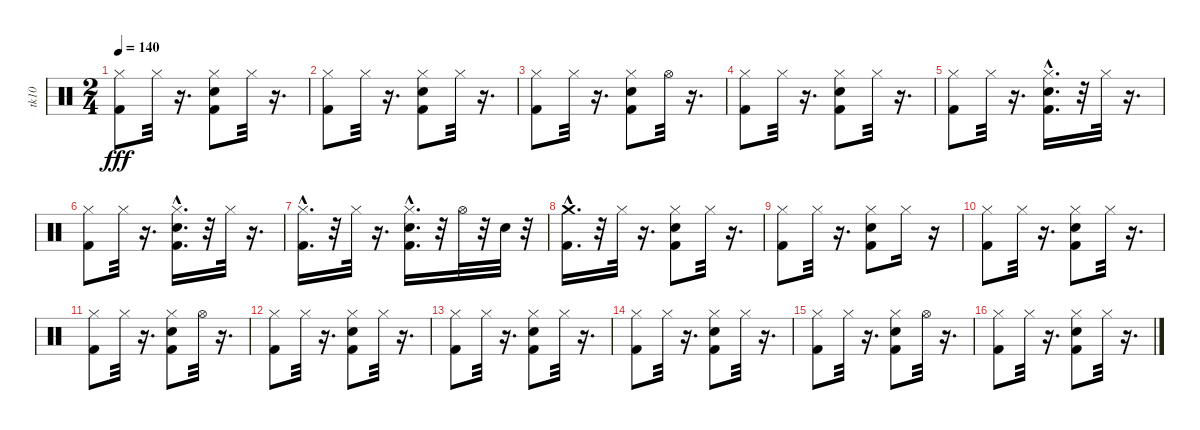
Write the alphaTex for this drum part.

\track ("tk10" "tk10") {instrument percussion}
\staff {score}
\articulation defaults
\ts (2 4)
\tempo 140
\clef neutral
\ks c
("Kick (hit) 2" "Hi-Hat (closed)").8{dy fff} "Hi-Hat (closed)".32 r.16{d} ("Snare (hit) 2" "Kick (hit) 2" "Hi-Hat (closed)").8 "Hi-Hat (closed)".32 r.16{d} |
("Kick (hit) 2" "Hi-Hat (closed)").8 "Hi-Hat (closed)".32 r.16{d} ("Snare (hit) 2" "Kick (hit) 2" "Hi-Hat (closed)").8 "Hi-Hat (closed)".32 r.16{d} |
("Kick (hit) 2" "Hi-Hat (closed)").8 "Hi-Hat (closed)".32 r.16{d} ("Snare (hit) 2" "Kick (hit) 2" "Hi-Hat (closed)").8 "Hi-Hat (open)".32 r.16{d} |
("Kick (hit) 2" "Hi-Hat (closed)").8 "Hi-Hat (closed)".32 r.16{d} ("Snare (hit) 2" "Kick (hit) 2" "Hi-Hat (closed)").8 "Hi-Hat (closed)".32 r.16{d} |
("Kick (hit) 2" "Hi-Hat (closed)").8 "Hi-Hat (closed)".32 r.16{d} ("Snare (hit) 2"{hac} "Kick (hit) 2"{hac} "Hi-Hat (closed)").16{d} r.32 "Hi-Hat (closed)".32 r.16{d} |
("Kick (hit) 2" "Hi-Hat (closed)").8 "Hi-Hat (closed)".32 r.16{d} ("Hi-Hat (closed)" "Snare (hit) 2"{hac} "Kick (hit) 2"{hac}).16{d} r.32 "Hi-Hat (closed)".32 r.16{d} |
("Kick (hit) 2"{hac} "Hi-Hat (closed)").16{d} r.32 "Hi-Hat (closed)".32 r.16{d} ("Snare (hit) 2"{hac} "Kick (hit) 2"{hac} "Hi-Hat (closed)").16{d} r.32 "Hi-Hat (open)".32 r.32 "Snare (hit) 2".32 r.32 |
("Kick (hit) 2"{hac} "Crash medium (hit)").16{d} r.32 "Hi-Hat (closed)".32 r.16{d} ("Kick (hit) 2" "Snare (hit) 2" "Hi-Hat (closed)").8 "Hi-Hat (closed)".32 r.16{d} |
("Kick (hit) 2" "Hi-Hat (closed)").8 "Hi-Hat (closed)".32 r.16{d} ("Snare (hit) 2" "Kick (hit) 2" "Hi-Hat (closed)").8 "Hi-Hat (closed)".16 r.16 |
("Kick (hit) 2" "Hi-Hat (closed)").8 "Hi-Hat (closed)".32 r.16{d} ("Snare (hit) 2" "Kick (hit) 2" "Hi-Hat (closed)").8 "Hi-Hat (closed)".32 r.16{d} |
("Kick (hit) 2" "Hi-Hat (closed)").8 "Hi-Hat (closed)".32 r.16{d} ("Kick (hit) 2" "Snare (hit) 2" "Hi-Hat (closed)").8 "Hi-Hat (open)".32 r.16{d} |
("Kick (hit) 2" "Hi-Hat (closed)").8 "Hi-Hat (closed)".32 r.16{d} ("Snare (hit) 2" "Kick (hit) 2" "Hi-Hat (closed)").8 "Hi-Hat (closed)".32 r.16{d} |
("Kick (hit) 2" "Hi-Hat (closed)").8 "Hi-Hat (closed)".32 r.16{d} ("Hi-Hat (closed)" "Snare (hit) 2" "Kick (hit) 2").8 "Hi-Hat (closed)".32 r.16{d} |
("Kick (hit) 2" "Hi-Hat (closed)").8 "Hi-Hat (closed)".32 r.16{d} ("Snare (hit) 2" "Kick (hit) 2" "Hi-Hat (closed)").8 "Hi-Hat (closed)".32 r.16{d} |
("Kick (hit) 2" "Hi-Hat (closed)").8 "Hi-Hat (closed)".32 r.16{d} ("Hi-Hat (closed)" "Kick (hit) 2" "Snare (hit) 2").8 "Hi-Hat (open)".32 r.16{d} |
("Kick (hit) 2" "Hi-Hat (closed)").8 "Hi-Hat (closed)".32 r.16{d} ("Kick (hit) 2" "Hi-Hat (closed)" "Snare (hit) 2").8 "Hi-Hat (closed)".32 r.16{d}
